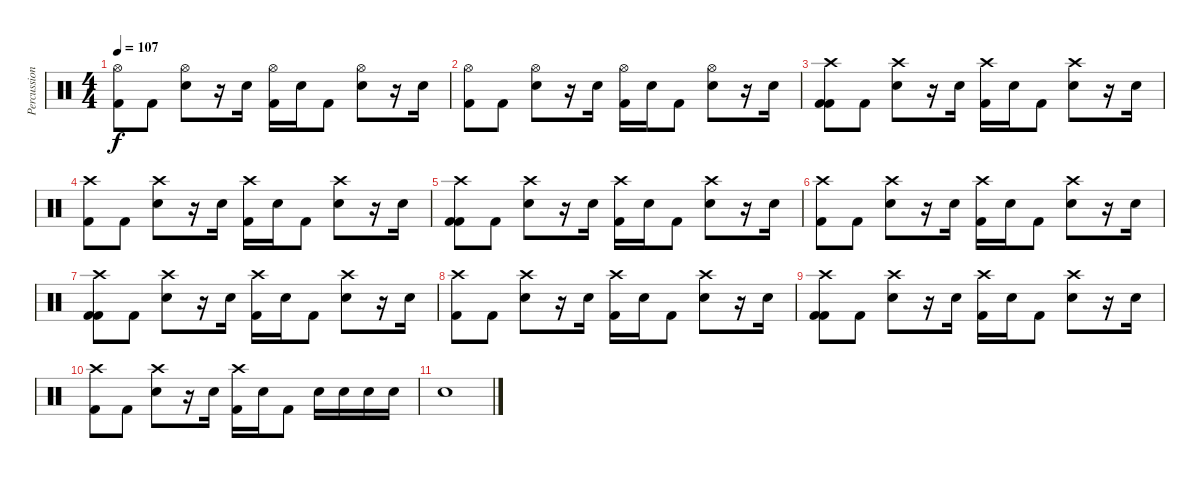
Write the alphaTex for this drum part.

\track ("Percussion" "Percussion") {instrument percussion}
\staff {score}
\articulation defaults
\ts (4 4)
\tempo 107
\clef neutral
\ks c
("Hi-Hat (open)" "Kick (hit) 2").8{dy f} "Kick (hit) 2".8 ("Hi-Hat (open)" "Snare (hit) 2").8 r.16 "Snare (hit) 2".16 ("Hi-Hat (open)" "Kick (hit) 2").16 "Snare (hit) 2".16 "Kick (hit) 2".8 ("Hi-Hat (open)" "Snare (hit) 2").8 r.16 "Snare (hit) 2".16 |
("Hi-Hat (open)" "Kick (hit) 2").8 "Kick (hit) 2".8 ("Hi-Hat (open)" "Snare (hit) 2").8 r.16 "Snare (hit) 2".16 ("Hi-Hat (open)" "Kick (hit) 2").16 "Snare (hit) 2".16 "Kick (hit) 2".8 ("Hi-Hat (open)" "Snare (hit) 2").8 r.16 "Snare (hit) 2".16 |
("Kick (hit) 2" "Crash high (hit)" "Kick (hit) 2").8 "Kick (hit) 2".8 ("Crash high (hit)" "Snare (hit) 2").8 r.16 "Snare (hit) 2".16 ("Crash high (hit)" "Kick (hit) 2").16 "Snare (hit) 2".16 "Kick (hit) 2".8 ("Crash high (hit)" "Snare (hit) 2").8 r.16 "Snare (hit) 2".16 |
("Crash high (hit)" "Kick (hit) 2").8 "Kick (hit) 2".8 ("Crash high (hit)" "Snare (hit) 2").8 r.16 "Snare (hit) 2".16 ("Crash high (hit)" "Kick (hit) 2").16 "Snare (hit) 2".16 "Kick (hit) 2".8 ("Crash high (hit)" "Snare (hit) 2").8 r.16 "Snare (hit) 2".16 |
("Kick (hit) 2" "Crash high (hit)" "Kick (hit) 2").8 "Kick (hit) 2".8 ("Crash high (hit)" "Snare (hit) 2").8 r.16 "Snare (hit) 2".16 ("Crash high (hit)" "Kick (hit) 2").16 "Snare (hit) 2".16 "Kick (hit) 2".8 ("Crash high (hit)" "Snare (hit) 2").8 r.16 "Snare (hit) 2".16 |
("Crash high (hit)" "Kick (hit) 2").8 "Kick (hit) 2".8 ("Crash high (hit)" "Snare (hit) 2").8 r.16 "Snare (hit) 2".16 ("Crash high (hit)" "Kick (hit) 2").16 "Snare (hit) 2".16 "Kick (hit) 2".8 ("Crash high (hit)" "Snare (hit) 2").8 r.16 "Snare (hit) 2".16 |
("Kick (hit) 2" "Crash high (hit)" "Kick (hit) 2").8 "Kick (hit) 2".8 ("Crash high (hit)" "Snare (hit) 2").8 r.16 "Snare (hit) 2".16 ("Crash high (hit)" "Kick (hit) 2").16 "Snare (hit) 2".16 "Kick (hit) 2".8 ("Crash high (hit)" "Snare (hit) 2").8 r.16 "Snare (hit) 2".16 |
("Crash high (hit)" "Kick (hit) 2").8 "Kick (hit) 2".8 ("Crash high (hit)" "Snare (hit) 2").8 r.16 "Snare (hit) 2".16 ("Crash high (hit)" "Kick (hit) 2").16 "Snare (hit) 2".16 "Kick (hit) 2".8 ("Crash high (hit)" "Snare (hit) 2").8 r.16 "Snare (hit) 2".16 |
("Kick (hit) 2" "Crash high (hit)" "Kick (hit) 2").8 "Kick (hit) 2".8 ("Crash high (hit)" "Snare (hit) 2").8 r.16 "Snare (hit) 2".16 ("Crash high (hit)" "Kick (hit) 2").16 "Snare (hit) 2".16 "Kick (hit) 2".8 ("Crash high (hit)" "Snare (hit) 2").8 r.16 "Snare (hit) 2".16 |
("Crash high (hit)" "Kick (hit) 2").8 "Kick (hit) 2".8 ("Crash high (hit)" "Snare (hit) 2").8 r.16 "Snare (hit) 2".16 ("Crash high (hit)" "Kick (hit) 2").16 "Snare (hit) 2".16 "Kick (hit) 2".8 "Snare (hit) 2".16 "Snare (hit) 2".16 "Snare (hit) 2".16 "Snare (hit) 2".16 |
"Snare (hit) 2".1
